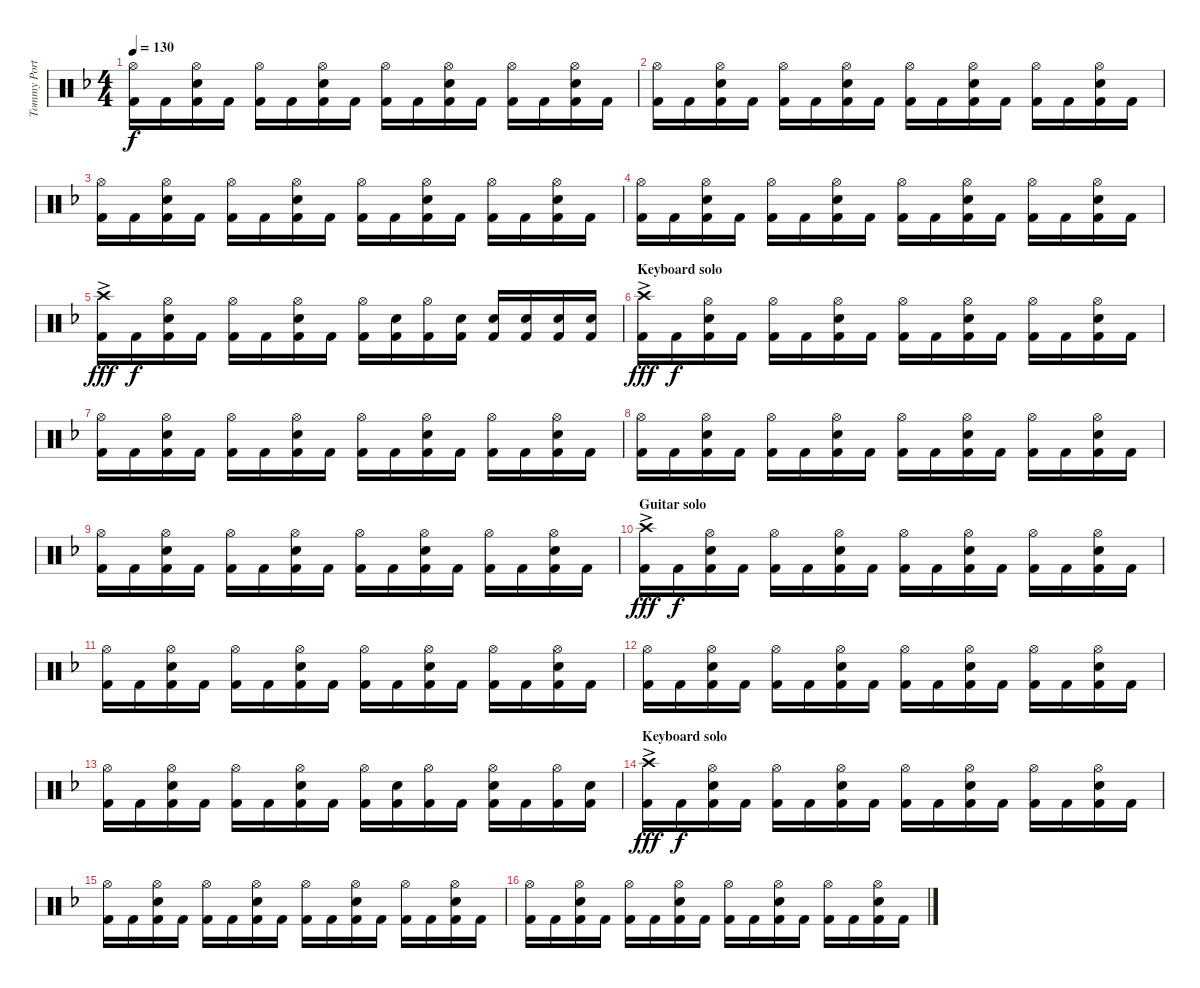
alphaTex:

\track ("Tommy Portimo" "Tommy Port") {instrument percussion}
\staff {score}
\articulation defaults
\ts (4 4)
\tempo 130
\clef neutral
\ks dminor
("Hi-Hat (open)" "Kick (hit) 2").16{dy f} "Kick (hit) 2".16 ("Hi-Hat (open)" "Electric Snare (hit)" "Kick (hit) 2").16 "Kick (hit) 2".16 ("Hi-Hat (open)" "Kick (hit) 2").16 "Kick (hit) 2".16 ("Hi-Hat (open)" "Electric Snare (hit)" "Kick (hit) 2").16 "Kick (hit) 2".16 ("Hi-Hat (open)" "Kick (hit) 2").16 "Kick (hit) 2".16 ("Hi-Hat (open)" "Electric Snare (hit)" "Kick (hit) 2").16 "Kick (hit) 2".16 ("Hi-Hat (open)" "Kick (hit) 2").16 "Kick (hit) 2".16 ("Hi-Hat (open)" "Electric Snare (hit)" "Kick (hit) 2").16 "Kick (hit) 2".16 |
("Hi-Hat (open)" "Kick (hit) 2").16 "Kick (hit) 2".16 ("Hi-Hat (open)" "Electric Snare (hit)" "Kick (hit) 2").16 "Kick (hit) 2".16 ("Hi-Hat (open)" "Kick (hit) 2").16 "Kick (hit) 2".16 ("Hi-Hat (open)" "Electric Snare (hit)" "Kick (hit) 2").16 "Kick (hit) 2".16 ("Hi-Hat (open)" "Kick (hit) 2").16 "Kick (hit) 2".16 ("Hi-Hat (open)" "Electric Snare (hit)" "Kick (hit) 2").16 "Kick (hit) 2".16 ("Hi-Hat (open)" "Kick (hit) 2").16 "Kick (hit) 2".16 ("Hi-Hat (open)" "Electric Snare (hit)" "Kick (hit) 2").16 "Kick (hit) 2".16 |
("Hi-Hat (open)" "Kick (hit) 2").16 "Kick (hit) 2".16 ("Hi-Hat (open)" "Electric Snare (hit)" "Kick (hit) 2").16 "Kick (hit) 2".16 ("Hi-Hat (open)" "Kick (hit) 2").16 "Kick (hit) 2".16 ("Hi-Hat (open)" "Electric Snare (hit)" "Kick (hit) 2").16 "Kick (hit) 2".16 ("Hi-Hat (open)" "Kick (hit) 2").16 "Kick (hit) 2".16 ("Hi-Hat (open)" "Electric Snare (hit)" "Kick (hit) 2").16 "Kick (hit) 2".16 ("Hi-Hat (open)" "Kick (hit) 2").16 "Kick (hit) 2".16 ("Hi-Hat (open)" "Electric Snare (hit)" "Kick (hit) 2").16 "Kick (hit) 2".16 |
("Hi-Hat (open)" "Kick (hit) 2").16 "Kick (hit) 2".16 ("Hi-Hat (open)" "Electric Snare (hit)" "Kick (hit) 2").16 "Kick (hit) 2".16 ("Hi-Hat (open)" "Kick (hit) 2").16 "Kick (hit) 2".16 ("Hi-Hat (open)" "Electric Snare (hit)" "Kick (hit) 2").16 "Kick (hit) 2".16 ("Hi-Hat (open)" "Kick (hit) 2").16 "Kick (hit) 2".16 ("Hi-Hat (open)" "Electric Snare (hit)" "Kick (hit) 2").16 "Kick (hit) 2".16 ("Hi-Hat (open)" "Kick (hit) 2").16 "Kick (hit) 2".16 ("Hi-Hat (open)" "Electric Snare (hit)" "Kick (hit) 2").16 "Kick (hit) 2".16 |
("Crash high (hit)"{ac} "Kick (hit) 2").16{dy fff} "Kick (hit) 2".16{dy f} ("Hi-Hat (open)" "Electric Snare (hit)" "Kick (hit) 2").16 "Kick (hit) 2".16 ("Hi-Hat (open)" "Kick (hit) 2").16 "Kick (hit) 2".16 ("Hi-Hat (open)" "Electric Snare (hit)" "Kick (hit) 2").16 "Kick (hit) 2".16 ("Hi-Hat (open)" "Kick (hit) 2").16 ("Electric Snare (hit)" "Kick (hit) 2").16 ("Hi-Hat (open)" "Kick (hit) 2").16 ("Electric Snare (hit)" "Kick (hit) 2").16 ("Electric Snare (hit)" "Kick (hit) 2").16 ("Electric Snare (hit)" "Kick (hit) 2").16 ("Electric Snare (hit)" "Kick (hit) 2").16 ("Electric Snare (hit)" "Kick (hit) 2").16 |
\section ("" "Keyboard solo ")
("Crash high (hit)"{ac} "Kick (hit) 2").16{dy fff} "Kick (hit) 2".16{dy f} ("Hi-Hat (open)" "Electric Snare (hit)" "Kick (hit) 2").16 "Kick (hit) 2".16 ("Hi-Hat (open)" "Kick (hit) 2").16 "Kick (hit) 2".16 ("Hi-Hat (open)" "Electric Snare (hit)" "Kick (hit) 2").16 "Kick (hit) 2".16 ("Hi-Hat (open)" "Kick (hit) 2").16 "Kick (hit) 2".16 ("Hi-Hat (open)" "Electric Snare (hit)" "Kick (hit) 2").16 "Kick (hit) 2".16 ("Hi-Hat (open)" "Kick (hit) 2").16 "Kick (hit) 2".16 ("Hi-Hat (open)" "Electric Snare (hit)" "Kick (hit) 2").16 "Kick (hit) 2".16 |
("Hi-Hat (open)" "Kick (hit) 2").16 "Kick (hit) 2".16 ("Hi-Hat (open)" "Electric Snare (hit)" "Kick (hit) 2").16 "Kick (hit) 2".16 ("Hi-Hat (open)" "Kick (hit) 2").16 "Kick (hit) 2".16 ("Hi-Hat (open)" "Electric Snare (hit)" "Kick (hit) 2").16 "Kick (hit) 2".16 ("Hi-Hat (open)" "Kick (hit) 2").16 "Kick (hit) 2".16 ("Hi-Hat (open)" "Electric Snare (hit)" "Kick (hit) 2").16 "Kick (hit) 2".16 ("Hi-Hat (open)" "Kick (hit) 2").16 "Kick (hit) 2".16 ("Hi-Hat (open)" "Electric Snare (hit)" "Kick (hit) 2").16 "Kick (hit) 2".16 |
("Hi-Hat (open)" "Kick (hit) 2").16 "Kick (hit) 2".16 ("Hi-Hat (open)" "Electric Snare (hit)" "Kick (hit) 2").16 "Kick (hit) 2".16 ("Hi-Hat (open)" "Kick (hit) 2").16 "Kick (hit) 2".16 ("Hi-Hat (open)" "Electric Snare (hit)" "Kick (hit) 2").16 "Kick (hit) 2".16 ("Hi-Hat (open)" "Kick (hit) 2").16 "Kick (hit) 2".16 ("Hi-Hat (open)" "Electric Snare (hit)" "Kick (hit) 2").16 "Kick (hit) 2".16 ("Hi-Hat (open)" "Kick (hit) 2").16 "Kick (hit) 2".16 ("Hi-Hat (open)" "Electric Snare (hit)" "Kick (hit) 2").16 "Kick (hit) 2".16 |
("Hi-Hat (open)" "Kick (hit) 2").16 "Kick (hit) 2".16 ("Hi-Hat (open)" "Electric Snare (hit)" "Kick (hit) 2").16 "Kick (hit) 2".16 ("Hi-Hat (open)" "Kick (hit) 2").16 "Kick (hit) 2".16 ("Hi-Hat (open)" "Electric Snare (hit)" "Kick (hit) 2").16 "Kick (hit) 2".16 ("Hi-Hat (open)" "Kick (hit) 2").16 "Kick (hit) 2".16 ("Hi-Hat (open)" "Electric Snare (hit)" "Kick (hit) 2").16 "Kick (hit) 2".16 ("Hi-Hat (open)" "Kick (hit) 2").16 "Kick (hit) 2".16 ("Hi-Hat (open)" "Electric Snare (hit)" "Kick (hit) 2").16 "Kick (hit) 2".16 |
\section ("" "Guitar solo")
("Crash high (hit)"{ac} "Kick (hit) 2").16{dy fff} "Kick (hit) 2".16{dy f} ("Hi-Hat (open)" "Electric Snare (hit)" "Kick (hit) 2").16 "Kick (hit) 2".16 ("Hi-Hat (open)" "Kick (hit) 2").16 "Kick (hit) 2".16 ("Hi-Hat (open)" "Electric Snare (hit)" "Kick (hit) 2").16 "Kick (hit) 2".16 ("Hi-Hat (open)" "Kick (hit) 2").16 "Kick (hit) 2".16 ("Hi-Hat (open)" "Electric Snare (hit)" "Kick (hit) 2").16 "Kick (hit) 2".16 ("Hi-Hat (open)" "Kick (hit) 2").16 "Kick (hit) 2".16 ("Hi-Hat (open)" "Electric Snare (hit)" "Kick (hit) 2").16 "Kick (hit) 2".16 |
("Hi-Hat (open)" "Kick (hit) 2").16 "Kick (hit) 2".16 ("Hi-Hat (open)" "Electric Snare (hit)" "Kick (hit) 2").16 "Kick (hit) 2".16 ("Hi-Hat (open)" "Kick (hit) 2").16 "Kick (hit) 2".16 ("Hi-Hat (open)" "Electric Snare (hit)" "Kick (hit) 2").16 "Kick (hit) 2".16 ("Hi-Hat (open)" "Kick (hit) 2").16 "Kick (hit) 2".16 ("Hi-Hat (open)" "Electric Snare (hit)" "Kick (hit) 2").16 "Kick (hit) 2".16 ("Hi-Hat (open)" "Kick (hit) 2").16 "Kick (hit) 2".16 ("Hi-Hat (open)" "Electric Snare (hit)" "Kick (hit) 2").16 "Kick (hit) 2".16 |
("Hi-Hat (open)" "Kick (hit) 2").16 "Kick (hit) 2".16 ("Hi-Hat (open)" "Electric Snare (hit)" "Kick (hit) 2").16 "Kick (hit) 2".16 ("Hi-Hat (open)" "Kick (hit) 2").16 "Kick (hit) 2".16 ("Hi-Hat (open)" "Electric Snare (hit)" "Kick (hit) 2").16 "Kick (hit) 2".16 ("Hi-Hat (open)" "Kick (hit) 2").16 "Kick (hit) 2".16 ("Hi-Hat (open)" "Electric Snare (hit)" "Kick (hit) 2").16 "Kick (hit) 2".16 ("Hi-Hat (open)" "Kick (hit) 2").16 "Kick (hit) 2".16 ("Hi-Hat (open)" "Electric Snare (hit)" "Kick (hit) 2").16 "Kick (hit) 2".16 |
("Hi-Hat (open)" "Kick (hit) 2").16 "Kick (hit) 2".16 ("Hi-Hat (open)" "Electric Snare (hit)" "Kick (hit) 2").16 "Kick (hit) 2".16 ("Hi-Hat (open)" "Kick (hit) 2").16 "Kick (hit) 2".16 ("Hi-Hat (open)" "Electric Snare (hit)" "Kick (hit) 2").16 "Kick (hit) 2".16 ("Hi-Hat (open)" "Kick (hit) 2").16 ("Electric Snare (hit)" "Kick (hit) 2").16 ("Hi-Hat (open)" "Kick (hit) 2").16 "Kick (hit) 2".16 ("Hi-Hat (open)" "Electric Snare (hit)" "Kick (hit) 2").16 "Kick (hit) 2".16 ("Hi-Hat (open)" "Kick (hit) 2").16 ("Electric Snare (hit)" "Kick (hit) 2").16 |
\section ("" "Keyboard solo")
("Crash high (hit)"{ac} "Kick (hit) 2").16{dy fff} "Kick (hit) 2".16{dy f} ("Hi-Hat (open)" "Electric Snare (hit)" "Kick (hit) 2").16 "Kick (hit) 2".16 ("Hi-Hat (open)" "Kick (hit) 2").16 "Kick (hit) 2".16 ("Hi-Hat (open)" "Electric Snare (hit)" "Kick (hit) 2").16 "Kick (hit) 2".16 ("Hi-Hat (open)" "Kick (hit) 2").16 "Kick (hit) 2".16 ("Hi-Hat (open)" "Electric Snare (hit)" "Kick (hit) 2").16 "Kick (hit) 2".16 ("Hi-Hat (open)" "Kick (hit) 2").16 "Kick (hit) 2".16 ("Hi-Hat (open)" "Electric Snare (hit)" "Kick (hit) 2").16 "Kick (hit) 2".16 |
("Hi-Hat (open)" "Kick (hit) 2").16 "Kick (hit) 2".16 ("Hi-Hat (open)" "Electric Snare (hit)" "Kick (hit) 2").16 "Kick (hit) 2".16 ("Hi-Hat (open)" "Kick (hit) 2").16 "Kick (hit) 2".16 ("Hi-Hat (open)" "Electric Snare (hit)" "Kick (hit) 2").16 "Kick (hit) 2".16 ("Hi-Hat (open)" "Kick (hit) 2").16 "Kick (hit) 2".16 ("Hi-Hat (open)" "Electric Snare (hit)" "Kick (hit) 2").16 "Kick (hit) 2".16 ("Hi-Hat (open)" "Kick (hit) 2").16 "Kick (hit) 2".16 ("Hi-Hat (open)" "Electric Snare (hit)" "Kick (hit) 2").16 "Kick (hit) 2".16 |
("Hi-Hat (open)" "Kick (hit) 2").16 "Kick (hit) 2".16 ("Hi-Hat (open)" "Electric Snare (hit)" "Kick (hit) 2").16 "Kick (hit) 2".16 ("Hi-Hat (open)" "Kick (hit) 2").16 "Kick (hit) 2".16 ("Hi-Hat (open)" "Electric Snare (hit)" "Kick (hit) 2").16 "Kick (hit) 2".16 ("Hi-Hat (open)" "Kick (hit) 2").16 "Kick (hit) 2".16 ("Hi-Hat (open)" "Electric Snare (hit)" "Kick (hit) 2").16 "Kick (hit) 2".16 ("Hi-Hat (open)" "Kick (hit) 2").16 "Kick (hit) 2".16 ("Hi-Hat (open)" "Electric Snare (hit)" "Kick (hit) 2").16 "Kick (hit) 2".16
